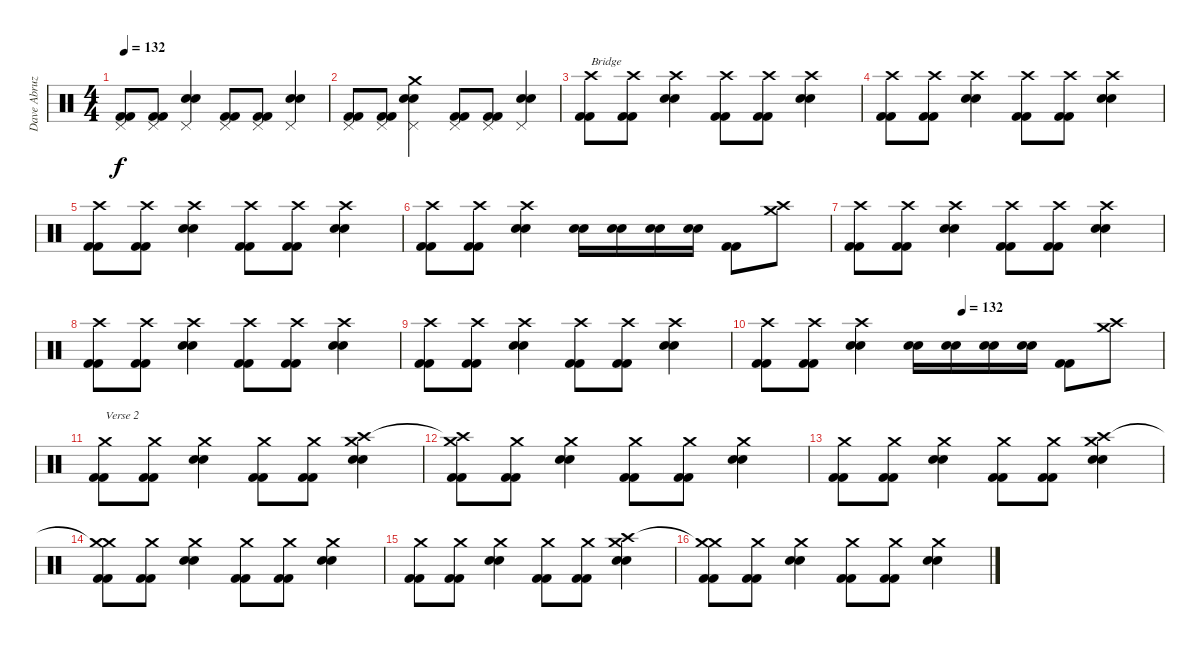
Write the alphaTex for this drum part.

\track ("Dave Abruzzesse" "Dave Abruz") {instrument percussion}
\staff {score}
\articulation defaults
\ts (4 4)
\tempo 132
\clef neutral
\ks c
("Pedal Hi-Hat (hit)" "Kick (hit) 2" "Kick (hit) 2").8{dy f} ("Pedal Hi-Hat (hit)" "Kick (hit) 2" "Kick (hit) 2").8 ("Pedal Hi-Hat (hit)" "Snare (hit) 2" "Snare (hit) 2").4 ("Pedal Hi-Hat (hit)" "Kick (hit) 2" "Kick (hit) 2").8 ("Pedal Hi-Hat (hit)" "Kick (hit) 2" "Kick (hit) 2").8 ("Pedal Hi-Hat (hit)" "Snare (hit) 2" "Snare (hit) 2").4 |
("Pedal Hi-Hat (hit)" "Kick (hit) 2" "Kick (hit) 2").8 ("Pedal Hi-Hat (hit)" "Kick (hit) 2" "Kick (hit) 2").8 ("Crash medium (hit)" "Pedal Hi-Hat (hit)" "Snare (hit) 2" "Snare (hit) 2").4 ("Pedal Hi-Hat (hit)" "Kick (hit) 2" "Kick (hit) 2").8 ("Pedal Hi-Hat (hit)" "Kick (hit) 2" "Kick (hit) 2").8 ("Pedal Hi-Hat (hit)" "Snare (hit) 2" "Snare (hit) 2").4 |
("Crash high (hit)" "Kick (hit) 2" "Kick (hit) 2").8{txt "Bridge"} ("Crash high (hit)" "Kick (hit) 2" "Kick (hit) 2").8 ("Crash high (hit)" "Snare (hit) 2" "Snare (hit) 2").4 ("Crash high (hit)" "Kick (hit) 2" "Kick (hit) 2").8 ("Crash high (hit)" "Kick (hit) 2" "Kick (hit) 2").8 ("Crash high (hit)" "Snare (hit) 2" "Snare (hit) 2").4 |
("Crash high (hit)" "Kick (hit) 2" "Kick (hit) 2").8 ("Crash high (hit)" "Kick (hit) 2" "Kick (hit) 2").8 ("Crash high (hit)" "Snare (hit) 2" "Snare (hit) 2").4 ("Crash high (hit)" "Kick (hit) 2" "Kick (hit) 2").8 ("Crash high (hit)" "Kick (hit) 2" "Kick (hit) 2").8 ("Crash high (hit)" "Snare (hit) 2" "Snare (hit) 2").4 |
("Crash high (hit)" "Kick (hit) 2" "Kick (hit) 2").8 ("Crash high (hit)" "Kick (hit) 2" "Kick (hit) 2").8 ("Crash high (hit)" "Snare (hit) 2" "Snare (hit) 2").4 ("Crash high (hit)" "Kick (hit) 2" "Kick (hit) 2").8 ("Crash high (hit)" "Kick (hit) 2" "Kick (hit) 2").8 ("Crash high (hit)" "Snare (hit) 2" "Snare (hit) 2").4 |
("Crash high (hit)" "Kick (hit) 2" "Kick (hit) 2").8 ("Crash high (hit)" "Kick (hit) 2" "Kick (hit) 2").8 ("Crash high (hit)" "Snare (hit) 2" "Snare (hit) 2").4 ("Snare (hit) 2" "Snare (hit) 2").16 ("Snare (hit) 2" "Snare (hit) 2").16 ("Snare (hit) 2" "Snare (hit) 2").16 ("Snare (hit) 2" "Snare (hit) 2").16 ("Kick (hit) 2" "Kick (hit) 2").8 ("Crash high (hit)" "Crash medium (hit)").8 |
("Crash high (hit)" "Kick (hit) 2" "Kick (hit) 2").8 ("Crash high (hit)" "Kick (hit) 2" "Kick (hit) 2").8 ("Crash high (hit)" "Snare (hit) 2" "Snare (hit) 2").4 ("Crash high (hit)" "Kick (hit) 2" "Kick (hit) 2").8 ("Crash high (hit)" "Kick (hit) 2" "Kick (hit) 2").8 ("Crash high (hit)" "Snare (hit) 2" "Snare (hit) 2").4 |
("Crash high (hit)" "Kick (hit) 2" "Kick (hit) 2").8 ("Crash high (hit)" "Kick (hit) 2" "Kick (hit) 2").8 ("Crash high (hit)" "Snare (hit) 2" "Snare (hit) 2").4 ("Crash high (hit)" "Kick (hit) 2" "Kick (hit) 2").8 ("Crash high (hit)" "Kick (hit) 2" "Kick (hit) 2").8 ("Crash high (hit)" "Snare (hit) 2" "Snare (hit) 2").4 |
("Crash high (hit)" "Kick (hit) 2" "Kick (hit) 2").8 ("Crash high (hit)" "Kick (hit) 2" "Kick (hit) 2").8 ("Crash high (hit)" "Snare (hit) 2" "Snare (hit) 2").4 ("Crash high (hit)" "Kick (hit) 2" "Kick (hit) 2").8 ("Crash high (hit)" "Kick (hit) 2" "Kick (hit) 2").8 ("Crash high (hit)" "Snare (hit) 2" "Snare (hit) 2").4 |
\tempo (132 0.5)
("Crash high (hit)" "Kick (hit) 2" "Kick (hit) 2").8 ("Crash high (hit)" "Kick (hit) 2" "Kick (hit) 2").8 ("Crash high (hit)" "Snare (hit) 2" "Snare (hit) 2").4 ("Snare (hit) 2" "Snare (hit) 2").16 ("Snare (hit) 2" "Snare (hit) 2").16 ("Snare (hit) 2" "Snare (hit) 2").16 ("Snare (hit) 2" "Snare (hit) 2").16 ("Kick (hit) 2" "Kick (hit) 2").8 ("Crash high (hit)" "Crash medium (hit)").8 |
("Crash medium (hit)" "Kick (hit) 2" "Kick (hit) 2").8{txt "Verse 2"} ("Crash medium (hit)" "Kick (hit) 2" "Kick (hit) 2").8 ("Crash medium (hit)" "Snare (hit) 2" "Snare (hit) 2").4 ("Crash medium (hit)" "Kick (hit) 2" "Kick (hit) 2").8 ("Crash medium (hit)" "Kick (hit) 2" "Kick (hit) 2").8 ("Crash high (hit)" "Crash medium (hit)" "Snare (hit) 2" "Snare (hit) 2").4 |
("Crash high (hit)"{t} "Crash medium (hit)" "Kick (hit) 2" "Kick (hit) 2").8 ("Crash medium (hit)" "Kick (hit) 2" "Kick (hit) 2").8 ("Crash medium (hit)" "Snare (hit) 2" "Snare (hit) 2").4 ("Crash medium (hit)" "Kick (hit) 2" "Kick (hit) 2").8 ("Crash medium (hit)" "Kick (hit) 2" "Kick (hit) 2").8 ("Crash medium (hit)" "Snare (hit) 2" "Snare (hit) 2").4 |
("Crash medium (hit)" "Kick (hit) 2" "Kick (hit) 2").8 ("Crash medium (hit)" "Kick (hit) 2" "Kick (hit) 2").8 ("Crash medium (hit)" "Snare (hit) 2" "Snare (hit) 2").4 ("Crash medium (hit)" "Kick (hit) 2" "Kick (hit) 2").8 ("Crash medium (hit)" "Kick (hit) 2" "Kick (hit) 2").8 ("Crash high (hit)" "Crash medium (hit)" "Snare (hit) 2" "Snare (hit) 2").4 |
("Crash medium (hit)"{t} "Crash medium (hit)" "Kick (hit) 2" "Kick (hit) 2").8 ("Crash medium (hit)" "Kick (hit) 2" "Kick (hit) 2").8 ("Crash medium (hit)" "Snare (hit) 2" "Snare (hit) 2").4 ("Crash medium (hit)" "Kick (hit) 2" "Kick (hit) 2").8 ("Crash medium (hit)" "Kick (hit) 2" "Kick (hit) 2").8 ("Crash medium (hit)" "Snare (hit) 2" "Snare (hit) 2").4 |
("Crash medium (hit)" "Kick (hit) 2" "Kick (hit) 2").8 ("Crash medium (hit)" "Kick (hit) 2" "Kick (hit) 2").8 ("Crash medium (hit)" "Snare (hit) 2" "Snare (hit) 2").4 ("Crash medium (hit)" "Kick (hit) 2" "Kick (hit) 2").8 ("Crash medium (hit)" "Kick (hit) 2" "Kick (hit) 2").8 ("Crash high (hit)" "Crash medium (hit)" "Snare (hit) 2" "Snare (hit) 2").4 |
("Crash medium (hit)"{t} "Crash medium (hit)" "Kick (hit) 2" "Kick (hit) 2").8 ("Crash medium (hit)" "Kick (hit) 2" "Kick (hit) 2").8 ("Crash medium (hit)" "Snare (hit) 2" "Snare (hit) 2").4 ("Crash medium (hit)" "Kick (hit) 2" "Kick (hit) 2").8 ("Crash medium (hit)" "Kick (hit) 2" "Kick (hit) 2").8 ("Crash medium (hit)" "Snare (hit) 2" "Snare (hit) 2").4
